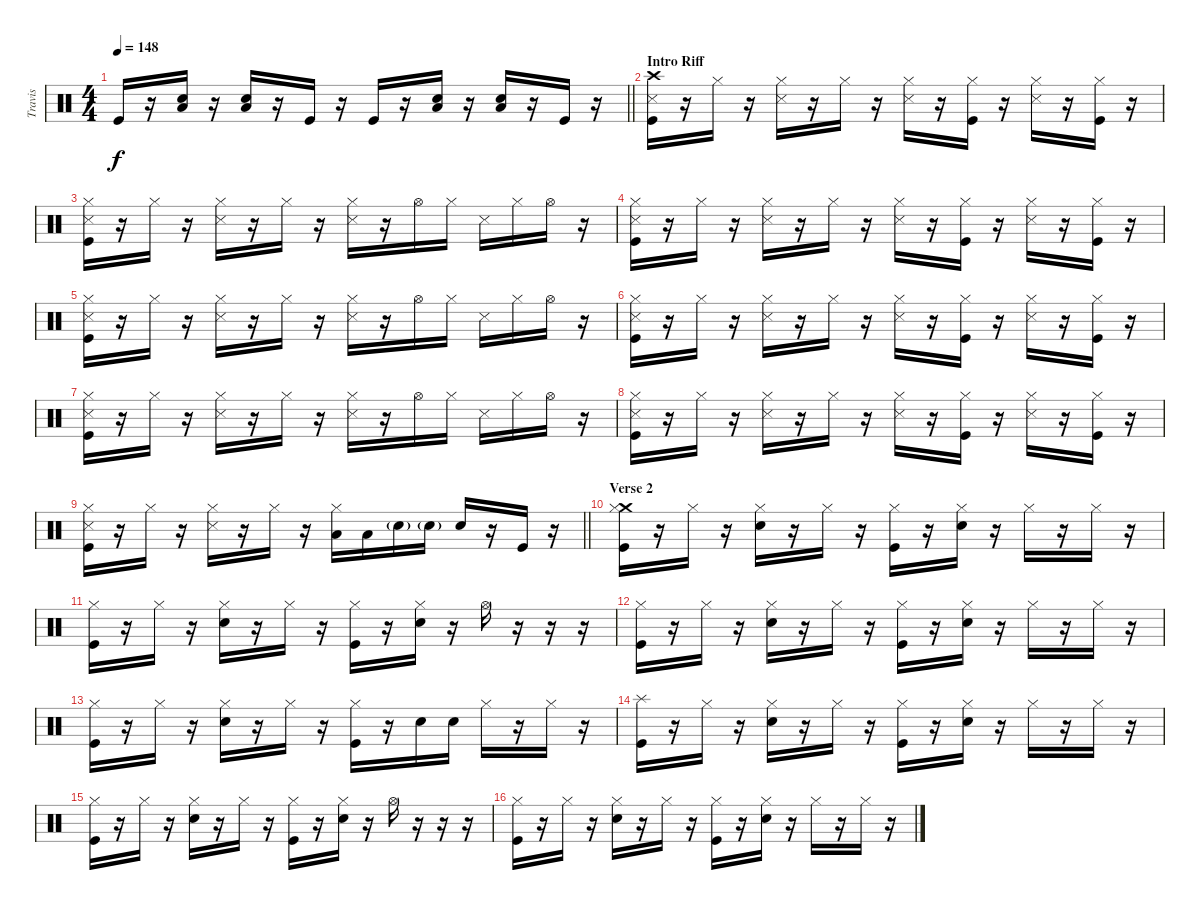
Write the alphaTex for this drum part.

\track ("Travis" "Travis") {instrument percussion}
\staff {score}
\articulation defaults
\ts (4 4)
\tempo 148
\clef neutral
\barLineRight lightlight
\ks c "Kick (hit)".16{dy f}
r.16 ("Low Floor Tom (hit)" "Snare (hit) 2").16 r.16 ("Low Floor Tom (hit)" "Snare (hit) 2").16 r.16 "Kick (hit)".16 r.16 "Kick (hit)".16 r.16 ("Low Floor Tom (hit)" "Snare (hit) 2").16 r.16 ("Low Floor Tom (hit)" "Snare (hit) 2").16 r.16 "Kick (hit)".16 r.16 |
\section ("" "Intro Riff")
("Crash high (hit)" "Snare (side stick) 3" "Kick (hit)").16 r.16 "Hi-Hat (closed)".16 r.16 ("Hi-Hat (closed)" "Snare (side stick) 3").16 r.16 "Hi-Hat (closed)".16 r.16 ("Hi-Hat (closed)" "Snare (side stick) 3").16 r.16 ("Hi-Hat (closed)" "Kick (hit)").16 r.16 ("Hi-Hat (closed)" "Snare (side stick) 3").16 r.16 ("Hi-Hat (closed)" "Kick (hit)").16 r.16 |
("Hi-Hat (closed)" "Snare (side stick) 3" "Kick (hit)").16 r.16 "Hi-Hat (closed)".16 r.16 ("Hi-Hat (closed)" "Snare (side stick) 3").16 r.16 "Hi-Hat (closed)".16 r.16 ("Hi-Hat (closed)" "Snare (side stick) 3").16 r.16 "Hi-Hat (open)".16 "Hi-Hat (closed)".16 "Snare (side stick) 3".16 "Hi-Hat (closed)".16 "Hi-Hat (open)".16 r.16 |
("Hi-Hat (closed)" "Snare (side stick) 3" "Kick (hit)").16 r.16 "Hi-Hat (closed)".16 r.16 ("Hi-Hat (closed)" "Snare (side stick) 3").16 r.16 "Hi-Hat (closed)".16 r.16 ("Hi-Hat (closed)" "Snare (side stick) 3").16 r.16 ("Hi-Hat (closed)" "Kick (hit)").16 r.16 ("Hi-Hat (closed)" "Snare (side stick) 3").16 r.16 ("Hi-Hat (closed)" "Kick (hit)").16 r.16 |
("Hi-Hat (closed)" "Snare (side stick) 3" "Kick (hit)").16 r.16 "Hi-Hat (closed)".16 r.16 ("Hi-Hat (closed)" "Snare (side stick) 3").16 r.16 "Hi-Hat (closed)".16 r.16 ("Hi-Hat (closed)" "Snare (side stick) 3").16 r.16 "Hi-Hat (open)".16 "Hi-Hat (closed)".16 "Snare (side stick) 3".16 "Hi-Hat (closed)".16 "Hi-Hat (open)".16 r.16 |
("Hi-Hat (closed)" "Snare (side stick) 3" "Kick (hit)").16 r.16 "Hi-Hat (closed)".16 r.16 ("Hi-Hat (closed)" "Snare (side stick) 3").16 r.16 "Hi-Hat (closed)".16 r.16 ("Hi-Hat (closed)" "Snare (side stick) 3").16 r.16 ("Hi-Hat (closed)" "Kick (hit)").16 r.16 ("Hi-Hat (closed)" "Snare (side stick) 3").16 r.16 ("Hi-Hat (closed)" "Kick (hit)").16 r.16 |
("Hi-Hat (closed)" "Snare (side stick) 3" "Kick (hit)").16 r.16 "Hi-Hat (closed)".16 r.16 ("Hi-Hat (closed)" "Snare (side stick) 3").16 r.16 "Hi-Hat (closed)".16 r.16 ("Hi-Hat (closed)" "Snare (side stick) 3").16 r.16 "Hi-Hat (open)".16 "Hi-Hat (closed)".16 "Snare (side stick) 3".16 "Hi-Hat (closed)".16 "Hi-Hat (open)".16 r.16 |
("Hi-Hat (closed)" "Snare (side stick) 3" "Kick (hit)").16 r.16 "Hi-Hat (closed)".16 r.16 ("Hi-Hat (closed)" "Snare (side stick) 3").16 r.16 "Hi-Hat (closed)".16 r.16 ("Hi-Hat (closed)" "Snare (side stick) 3").16 r.16 ("Hi-Hat (closed)" "Kick (hit)").16 r.16 ("Hi-Hat (closed)" "Snare (side stick) 3").16 r.16 ("Hi-Hat (closed)" "Kick (hit)").16 r.16 |
\barLineRight lightlight
("Hi-Hat (closed)" "Snare (side stick) 3" "Kick (hit)").16 r.16 "Hi-Hat (closed)".16 r.16 ("Hi-Hat (closed)" "Snare (side stick) 3").16 r.16 "Hi-Hat (closed)".16 r.16 ("Hi-Hat (closed)" "Low Floor Tom (hit)").16 "Low Floor Tom (hit)".16 "Snare (hit) 2"{g}.16 "Snare (hit) 2"{g}.16 "Snare (hit) 2".16 r.16 "Kick (hit)".16 r.16 |
\section ("" "Verse 2")
("Crash medium (hit)" "Hi-Hat (closed)" "Kick (hit)").16 r.16 "Hi-Hat (closed)".16 r.16 ("Hi-Hat (closed)" "Snare (hit) 2").16 r.16 "Hi-Hat (closed)".16 r.16 ("Hi-Hat (closed)" "Kick (hit)").16 r.16 ("Hi-Hat (closed)" "Snare (hit) 2").16 r.16 "Hi-Hat (closed)".16 r.16 "Hi-Hat (closed)".16 r.16 |
("Hi-Hat (closed)" "Kick (hit)").16 r.16 "Hi-Hat (closed)".16 r.16 ("Hi-Hat (closed)" "Snare (hit) 2").16 r.16 "Hi-Hat (closed)".16 r.16 ("Hi-Hat (closed)" "Kick (hit)").16 r.16 ("Hi-Hat (closed)" "Snare (hit) 2").16 r.16 "Hi-Hat (open)".16 r.16 r.16 r.16 |
("Hi-Hat (closed)" "Kick (hit)").16 r.16 "Hi-Hat (closed)".16 r.16 ("Hi-Hat (closed)" "Snare (hit) 2").16 r.16 "Hi-Hat (closed)".16 r.16 ("Hi-Hat (closed)" "Kick (hit)").16 r.16 ("Hi-Hat (closed)" "Snare (hit) 2").16 r.16 "Hi-Hat (closed)".16 r.16 "Hi-Hat (closed)".16 r.16 |
("Hi-Hat (closed)" "Kick (hit)").16 r.16 "Hi-Hat (closed)".16 r.16 ("Hi-Hat (closed)" "Snare (hit) 2").16 r.16 "Hi-Hat (closed)".16 r.16 ("Hi-Hat (closed)" "Kick (hit)").16 r.16 "Snare (hit) 2".16 "Snare (hit) 2".16 "Hi-Hat (closed)".16 r.16 "Hi-Hat (closed)".16 r.16 |
("Splash (hit)" "Kick (hit)").16 r.16 "Hi-Hat (closed)".16 r.16 ("Hi-Hat (closed)" "Snare (hit) 2").16 r.16 "Hi-Hat (closed)".16 r.16 ("Hi-Hat (closed)" "Kick (hit)").16 r.16 ("Hi-Hat (closed)" "Snare (hit) 2").16 r.16 "Hi-Hat (closed)".16 r.16 "Hi-Hat (closed)".16 r.16 |
("Hi-Hat (closed)" "Kick (hit)").16 r.16 "Hi-Hat (closed)".16 r.16 ("Hi-Hat (closed)" "Snare (hit) 2").16 r.16 "Hi-Hat (closed)".16 r.16 ("Hi-Hat (closed)" "Kick (hit)").16 r.16 ("Hi-Hat (closed)" "Snare (hit) 2").16 r.16 "Hi-Hat (open)".16 r.16 r.16 r.16 |
("Hi-Hat (closed)" "Kick (hit)").16 r.16 "Hi-Hat (closed)".16 r.16 ("Hi-Hat (closed)" "Snare (hit) 2").16 r.16 "Hi-Hat (closed)".16 r.16 ("Hi-Hat (closed)" "Kick (hit)").16 r.16 ("Hi-Hat (closed)" "Snare (hit) 2").16 r.16 "Hi-Hat (closed)".16 r.16 "Hi-Hat (closed)".16 r.16
